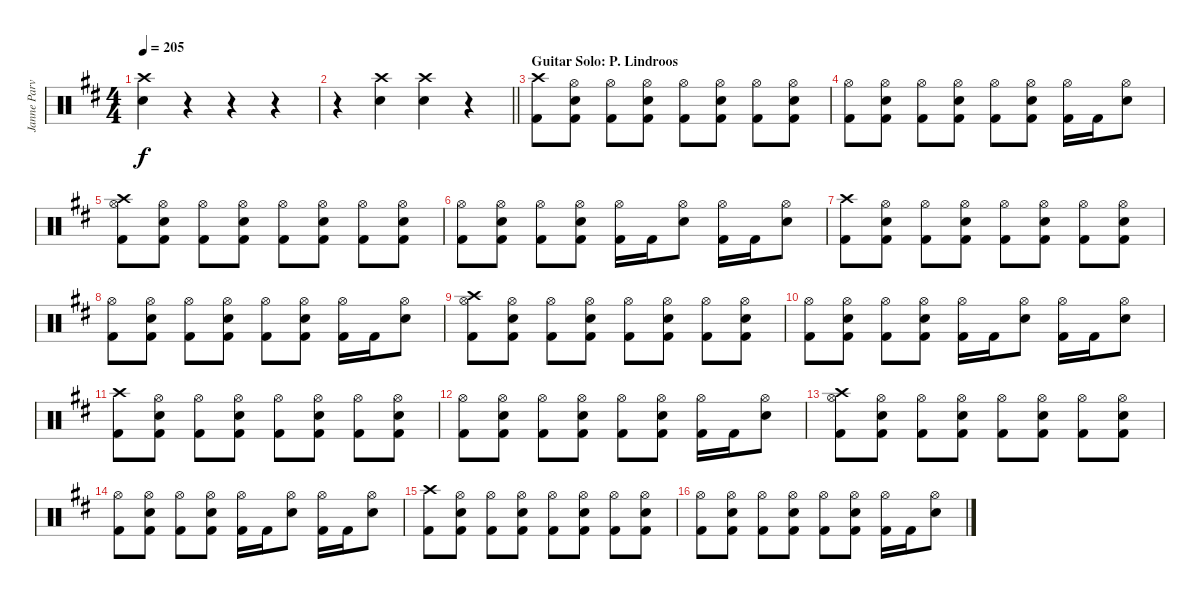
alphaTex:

\track ("Janne Parviainen" "Janne Parv") {instrument percussion}
\staff {score}
\articulation defaults
\ts (4 4)
\tempo 205
\clef neutral
\ks bminor
("Crash high (hit)" "Snare (hit) 2").4{dy f} r.4 r.4 r.4 |
\barLineRight lightlight
r.4 ("Crash high (hit)" "Snare (hit) 2").4 ("Crash high (hit)" "Snare (hit) 2").4 r.4 |
\section ("" "Guitar Solo: P. Lindroos")
("Crash high (hit)" "Kick (hit) 2").8 ("Hi-Hat (open)" "Snare (hit) 2" "Kick (hit) 2").8 ("Hi-Hat (open)" "Kick (hit) 2").8 ("Hi-Hat (open)" "Snare (hit) 2" "Kick (hit) 2").8 ("Hi-Hat (open)" "Kick (hit) 2").8 ("Hi-Hat (open)" "Snare (hit) 2" "Kick (hit) 2").8 ("Hi-Hat (open)" "Kick (hit) 2").8 ("Hi-Hat (open)" "Snare (hit) 2" "Kick (hit) 2").8 |
("Hi-Hat (open)" "Kick (hit) 2").8 ("Hi-Hat (open)" "Snare (hit) 2" "Kick (hit) 2").8 ("Hi-Hat (open)" "Kick (hit) 2").8 ("Hi-Hat (open)" "Snare (hit) 2" "Kick (hit) 2").8 ("Hi-Hat (open)" "Kick (hit) 2").8 ("Hi-Hat (open)" "Snare (hit) 2" "Kick (hit) 2").8 ("Hi-Hat (open)" "Kick (hit) 2").16 "Kick (hit) 2".16 ("Hi-Hat (open)" "Snare (hit) 2").8 |
("Crash high (hit)" "Hi-Hat (open)" "Kick (hit) 2").8 ("Hi-Hat (open)" "Snare (hit) 2" "Kick (hit) 2").8 ("Hi-Hat (open)" "Kick (hit) 2").8 ("Hi-Hat (open)" "Snare (hit) 2" "Kick (hit) 2").8 ("Hi-Hat (open)" "Kick (hit) 2").8 ("Hi-Hat (open)" "Snare (hit) 2" "Kick (hit) 2").8 ("Hi-Hat (open)" "Kick (hit) 2").8 ("Hi-Hat (open)" "Snare (hit) 2" "Kick (hit) 2").8 |
("Hi-Hat (open)" "Kick (hit) 2").8 ("Hi-Hat (open)" "Snare (hit) 2" "Kick (hit) 2").8 ("Hi-Hat (open)" "Kick (hit) 2").8 ("Hi-Hat (open)" "Snare (hit) 2" "Kick (hit) 2").8 ("Hi-Hat (open)" "Kick (hit) 2").16 "Kick (hit) 2".16 ("Hi-Hat (open)" "Snare (hit) 2").8 ("Hi-Hat (open)" "Kick (hit) 2").16 "Kick (hit) 2".16 ("Hi-Hat (open)" "Snare (hit) 2").8 |
("Crash high (hit)" "Kick (hit) 2").8 ("Hi-Hat (open)" "Snare (hit) 2" "Kick (hit) 2").8 ("Hi-Hat (open)" "Kick (hit) 2").8 ("Hi-Hat (open)" "Snare (hit) 2" "Kick (hit) 2").8 ("Hi-Hat (open)" "Kick (hit) 2").8 ("Hi-Hat (open)" "Snare (hit) 2" "Kick (hit) 2").8 ("Hi-Hat (open)" "Kick (hit) 2").8 ("Hi-Hat (open)" "Snare (hit) 2" "Kick (hit) 2").8 |
("Hi-Hat (open)" "Kick (hit) 2").8 ("Hi-Hat (open)" "Snare (hit) 2" "Kick (hit) 2").8 ("Hi-Hat (open)" "Kick (hit) 2").8 ("Hi-Hat (open)" "Snare (hit) 2" "Kick (hit) 2").8 ("Hi-Hat (open)" "Kick (hit) 2").8 ("Hi-Hat (open)" "Snare (hit) 2" "Kick (hit) 2").8 ("Hi-Hat (open)" "Kick (hit) 2").16 "Kick (hit) 2".16 ("Hi-Hat (open)" "Snare (hit) 2").8 |
("Crash high (hit)" "Hi-Hat (open)" "Kick (hit) 2").8 ("Hi-Hat (open)" "Snare (hit) 2" "Kick (hit) 2").8 ("Hi-Hat (open)" "Kick (hit) 2").8 ("Hi-Hat (open)" "Snare (hit) 2" "Kick (hit) 2").8 ("Hi-Hat (open)" "Kick (hit) 2").8 ("Hi-Hat (open)" "Snare (hit) 2" "Kick (hit) 2").8 ("Hi-Hat (open)" "Kick (hit) 2").8 ("Hi-Hat (open)" "Snare (hit) 2" "Kick (hit) 2").8 |
("Hi-Hat (open)" "Kick (hit) 2").8 ("Hi-Hat (open)" "Snare (hit) 2" "Kick (hit) 2").8 ("Hi-Hat (open)" "Kick (hit) 2").8 ("Hi-Hat (open)" "Snare (hit) 2" "Kick (hit) 2").8 ("Hi-Hat (open)" "Kick (hit) 2").16 "Kick (hit) 2".16 ("Hi-Hat (open)" "Snare (hit) 2").8 ("Hi-Hat (open)" "Kick (hit) 2").16 "Kick (hit) 2".16 ("Hi-Hat (open)" "Snare (hit) 2").8 |
("Crash high (hit)" "Kick (hit) 2").8 ("Hi-Hat (open)" "Snare (hit) 2" "Kick (hit) 2").8 ("Hi-Hat (open)" "Kick (hit) 2").8 ("Hi-Hat (open)" "Snare (hit) 2" "Kick (hit) 2").8 ("Hi-Hat (open)" "Kick (hit) 2").8 ("Hi-Hat (open)" "Snare (hit) 2" "Kick (hit) 2").8 ("Hi-Hat (open)" "Kick (hit) 2").8 ("Hi-Hat (open)" "Snare (hit) 2" "Kick (hit) 2").8 |
("Hi-Hat (open)" "Kick (hit) 2").8 ("Hi-Hat (open)" "Snare (hit) 2" "Kick (hit) 2").8 ("Hi-Hat (open)" "Kick (hit) 2").8 ("Hi-Hat (open)" "Snare (hit) 2" "Kick (hit) 2").8 ("Hi-Hat (open)" "Kick (hit) 2").8 ("Hi-Hat (open)" "Snare (hit) 2" "Kick (hit) 2").8 ("Hi-Hat (open)" "Kick (hit) 2").16 "Kick (hit) 2".16 ("Hi-Hat (open)" "Snare (hit) 2").8 |
("Crash high (hit)" "Hi-Hat (open)" "Kick (hit) 2").8 ("Hi-Hat (open)" "Snare (hit) 2" "Kick (hit) 2").8 ("Hi-Hat (open)" "Kick (hit) 2").8 ("Hi-Hat (open)" "Snare (hit) 2" "Kick (hit) 2").8 ("Hi-Hat (open)" "Kick (hit) 2").8 ("Hi-Hat (open)" "Snare (hit) 2" "Kick (hit) 2").8 ("Hi-Hat (open)" "Kick (hit) 2").8 ("Hi-Hat (open)" "Snare (hit) 2" "Kick (hit) 2").8 |
("Hi-Hat (open)" "Kick (hit) 2").8 ("Hi-Hat (open)" "Snare (hit) 2" "Kick (hit) 2").8 ("Hi-Hat (open)" "Kick (hit) 2").8 ("Hi-Hat (open)" "Snare (hit) 2" "Kick (hit) 2").8 ("Hi-Hat (open)" "Kick (hit) 2").16 "Kick (hit) 2".16 ("Hi-Hat (open)" "Snare (hit) 2").8 ("Hi-Hat (open)" "Kick (hit) 2").16 "Kick (hit) 2".16 ("Hi-Hat (open)" "Snare (hit) 2").8 |
("Crash high (hit)" "Kick (hit) 2").8 ("Hi-Hat (open)" "Snare (hit) 2" "Kick (hit) 2").8 ("Hi-Hat (open)" "Kick (hit) 2").8 ("Hi-Hat (open)" "Snare (hit) 2" "Kick (hit) 2").8 ("Hi-Hat (open)" "Kick (hit) 2").8 ("Hi-Hat (open)" "Snare (hit) 2" "Kick (hit) 2").8 ("Hi-Hat (open)" "Kick (hit) 2").8 ("Hi-Hat (open)" "Snare (hit) 2" "Kick (hit) 2").8 |
("Hi-Hat (open)" "Kick (hit) 2").8 ("Hi-Hat (open)" "Snare (hit) 2" "Kick (hit) 2").8 ("Hi-Hat (open)" "Kick (hit) 2").8 ("Hi-Hat (open)" "Snare (hit) 2" "Kick (hit) 2").8 ("Hi-Hat (open)" "Kick (hit) 2").8 ("Hi-Hat (open)" "Snare (hit) 2" "Kick (hit) 2").8 ("Hi-Hat (open)" "Kick (hit) 2").16 "Kick (hit) 2".16 ("Hi-Hat (open)" "Snare (hit) 2").8
